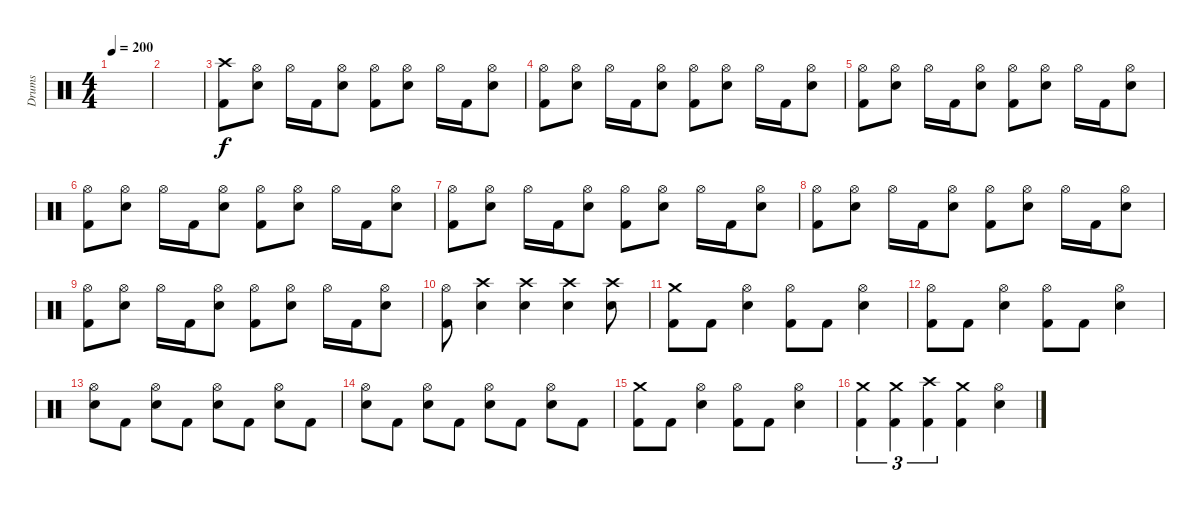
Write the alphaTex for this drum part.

\track ("Drums" "Drums") {instrument percussion}
\staff {score}
\articulation defaults
\ts (4 4)
\tempo 200
\clef neutral
\ks c
|
|
("Crash high (hit)" "Kick (hit) 2").8 ("Hi-Hat (open)" "Snare (hit) 2").8 "Hi-Hat (open)".16 "Kick (hit) 2".16 ("Hi-Hat (open)" "Snare (hit) 2").8 ("Hi-Hat (open)" "Kick (hit) 2").8 ("Hi-Hat (open)" "Snare (hit) 2").8 "Hi-Hat (open)".16 "Kick (hit) 2".16 ("Hi-Hat (open)" "Snare (hit) 2").8 |
("Hi-Hat (open)" "Kick (hit) 2").8 ("Hi-Hat (open)" "Snare (hit) 2").8 "Hi-Hat (open)".16 "Kick (hit) 2".16 ("Hi-Hat (open)" "Snare (hit) 2").8 ("Hi-Hat (open)" "Kick (hit) 2").8 ("Hi-Hat (open)" "Snare (hit) 2").8 "Hi-Hat (open)".16 "Kick (hit) 2".16 ("Hi-Hat (open)" "Snare (hit) 2").8 |
("Hi-Hat (open)" "Kick (hit) 2").8 ("Hi-Hat (open)" "Snare (hit) 2").8 "Hi-Hat (open)".16 "Kick (hit) 2".16 ("Hi-Hat (open)" "Snare (hit) 2").8 ("Hi-Hat (open)" "Kick (hit) 2").8 ("Hi-Hat (open)" "Snare (hit) 2").8 "Hi-Hat (open)".16 "Kick (hit) 2".16 ("Hi-Hat (open)" "Snare (hit) 2").8 |
("Hi-Hat (open)" "Kick (hit) 2").8 ("Hi-Hat (open)" "Snare (hit) 2").8 "Hi-Hat (open)".16 "Kick (hit) 2".16 ("Hi-Hat (open)" "Snare (hit) 2").8 ("Hi-Hat (open)" "Kick (hit) 2").8 ("Hi-Hat (open)" "Snare (hit) 2").8 "Hi-Hat (open)".16 "Kick (hit) 2".16 ("Hi-Hat (open)" "Snare (hit) 2").8 |
("Hi-Hat (open)" "Kick (hit) 2").8 ("Hi-Hat (open)" "Snare (hit) 2").8 "Hi-Hat (open)".16 "Kick (hit) 2".16 ("Hi-Hat (open)" "Snare (hit) 2").8 ("Hi-Hat (open)" "Kick (hit) 2").8 ("Hi-Hat (open)" "Snare (hit) 2").8 "Hi-Hat (open)".16 "Kick (hit) 2".16 ("Hi-Hat (open)" "Snare (hit) 2").8 |
("Hi-Hat (open)" "Kick (hit) 2").8 ("Hi-Hat (open)" "Snare (hit) 2").8 "Hi-Hat (open)".16 "Kick (hit) 2".16 ("Hi-Hat (open)" "Snare (hit) 2").8 ("Hi-Hat (open)" "Kick (hit) 2").8 ("Hi-Hat (open)" "Snare (hit) 2").8 "Hi-Hat (open)".16 "Kick (hit) 2".16 ("Hi-Hat (open)" "Snare (hit) 2").8 |
("Hi-Hat (open)" "Kick (hit) 2").8 ("Hi-Hat (open)" "Snare (hit) 2").8 "Hi-Hat (open)".16 "Kick (hit) 2".16 ("Hi-Hat (open)" "Snare (hit) 2").8 ("Hi-Hat (open)" "Kick (hit) 2").8 ("Hi-Hat (open)" "Snare (hit) 2").8 "Hi-Hat (open)".16 "Kick (hit) 2".16 ("Hi-Hat (open)" "Snare (hit) 2").8 |
("Hi-Hat (open)" "Kick (hit) 2").8 ("Crash high (hit)" "Snare (hit) 2").4 ("Crash high (hit)" "Snare (hit) 2").4 ("Crash high (hit)" "Snare (hit) 2").4 ("Crash high (hit)" "Snare (hit) 2").8 |
("Crash medium (hit)" "Kick (hit) 2").8 "Kick (hit) 2".8 ("Hi-Hat (open)" "Snare (hit) 2").4 ("Hi-Hat (open)" "Kick (hit) 2").8 "Kick (hit) 2".8 ("Hi-Hat (open)" "Snare (hit) 2").4 |
("Hi-Hat (open)" "Kick (hit) 2").8 "Kick (hit) 2".8 ("Hi-Hat (open)" "Snare (hit) 2").4 ("Hi-Hat (open)" "Kick (hit) 2").8 "Kick (hit) 2".8 ("Hi-Hat (open)" "Snare (hit) 2").4 |
("Hi-Hat (open)" "Snare (hit) 2").8 "Kick (hit) 2".8 ("Hi-Hat (open)" "Snare (hit) 2").8 "Kick (hit) 2".8 ("Hi-Hat (open)" "Snare (hit) 2").8 "Kick (hit) 2".8 ("Hi-Hat (open)" "Snare (hit) 2").8 "Kick (hit) 2".8 |
("Hi-Hat (open)" "Snare (hit) 2").8 "Kick (hit) 2".8 ("Hi-Hat (open)" "Snare (hit) 2").8 "Kick (hit) 2".8 ("Hi-Hat (open)" "Snare (hit) 2").8 "Kick (hit) 2".8 ("Hi-Hat (open)" "Snare (hit) 2").8 "Kick (hit) 2".8 |
("Crash medium (hit)" "Kick (hit) 2").8 "Kick (hit) 2".8 ("Hi-Hat (open)" "Snare (hit) 2").4 ("Hi-Hat (open)" "Kick (hit) 2").8 "Kick (hit) 2".8 ("Hi-Hat (open)" "Snare (hit) 2").4 |
("Crash medium (hit)" "Kick (hit) 2").4{tu (3 2)} ("Crash medium (hit)" "Kick (hit) 2").4{tu (3 2)} ("Crash high (hit)" "Kick (hit) 2").4{tu (3 2)} ("Crash medium (hit)" "Kick (hit) 2").4 ("Hi-Hat (open)" "Snare (hit) 2").4
